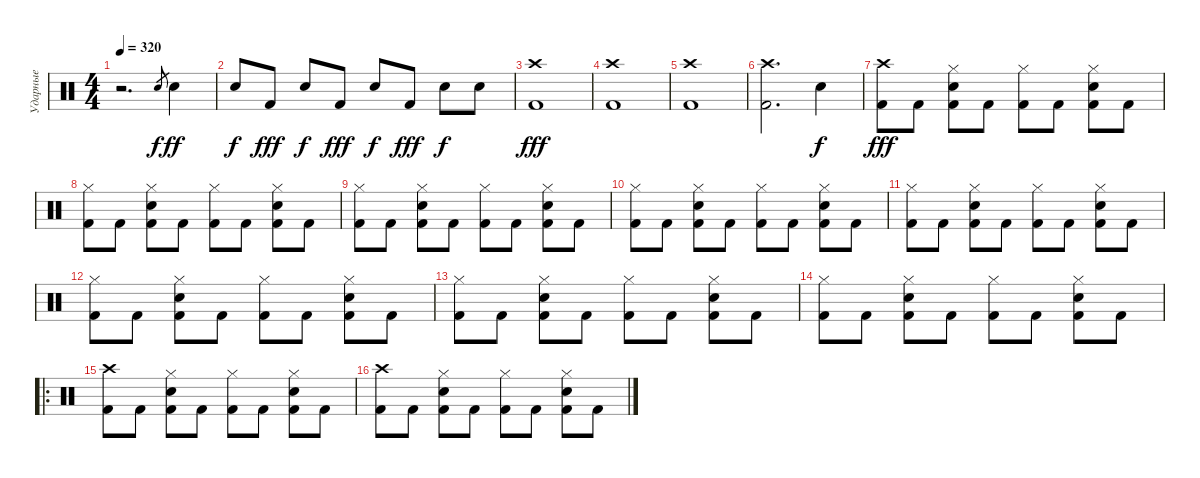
\track ("Ударные" "Ударные") {instrument percussion}
\staff {score}
\articulation defaults
\ts (4 4)
\tempo 320
\clef neutral
\ks c
r.2{d dy fff} "Electric Snare (hit)".8{gr dy f} "Electric Snare (hit)".4{dy ff} |
"Electric Snare (hit)".8{dy f} "Kick (hit) 2".8{dy fff} "Electric Snare (hit)".8{dy f} "Kick (hit) 2".8{dy fff} "Electric Snare (hit)".8{dy f} "Kick (hit) 2".8{dy fff} "Snare (hit) 2".8{dy f} "Snare (hit) 2".8 |
("Kick (hit) 2" "Crash high (hit)").1{dy fff} |
("Kick (hit) 2" "Crash high (hit)").1 |
("Kick (hit) 2" "Crash high (hit)").1 |
("Kick (hit) 2" "Crash high (hit)").2{d} "Snare (hit) 2".4{dy f} |
("Kick (hit) 2" "Crash high (hit)").8{dy fff} "Kick (hit) 2".8 ("Kick (hit) 2" "Snare (hit) 2" "Hi-Hat (closed)").8 "Kick (hit) 2".8 ("Kick (hit) 2" "Hi-Hat (closed)").8 "Kick (hit) 2".8 ("Kick (hit) 2" "Snare (hit) 2" "Hi-Hat (closed)").8 "Kick (hit) 2".8 |
("Kick (hit) 2" "Hi-Hat (closed)").8 "Kick (hit) 2".8 ("Kick (hit) 2" "Snare (hit) 2" "Hi-Hat (closed)").8 "Kick (hit) 2".8 ("Kick (hit) 2" "Hi-Hat (closed)").8 "Kick (hit) 2".8 ("Kick (hit) 2" "Snare (hit) 2" "Hi-Hat (closed)").8 "Kick (hit) 2".8 |
("Kick (hit) 2" "Hi-Hat (closed)").8 "Kick (hit) 2".8 ("Kick (hit) 2" "Snare (hit) 2" "Hi-Hat (closed)").8 "Kick (hit) 2".8 ("Kick (hit) 2" "Hi-Hat (closed)").8 "Kick (hit) 2".8 ("Kick (hit) 2" "Snare (hit) 2" "Hi-Hat (closed)").8 "Kick (hit) 2".8 |
("Kick (hit) 2" "Hi-Hat (closed)").8 "Kick (hit) 2".8 ("Kick (hit) 2" "Snare (hit) 2" "Hi-Hat (closed)").8 "Kick (hit) 2".8 ("Kick (hit) 2" "Hi-Hat (closed)").8 "Kick (hit) 2".8 ("Kick (hit) 2" "Snare (hit) 2" "Hi-Hat (closed)").8 "Kick (hit) 2".8 |
("Kick (hit) 2" "Hi-Hat (closed)").8 "Kick (hit) 2".8 ("Kick (hit) 2" "Snare (hit) 2" "Hi-Hat (closed)").8 "Kick (hit) 2".8 ("Kick (hit) 2" "Hi-Hat (closed)").8 "Kick (hit) 2".8 ("Kick (hit) 2" "Snare (hit) 2" "Hi-Hat (closed)").8 "Kick (hit) 2".8 |
("Kick (hit) 2" "Hi-Hat (closed)").8 "Kick (hit) 2".8 ("Kick (hit) 2" "Snare (hit) 2" "Hi-Hat (closed)").8 "Kick (hit) 2".8 ("Kick (hit) 2" "Hi-Hat (closed)").8 "Kick (hit) 2".8 ("Kick (hit) 2" "Snare (hit) 2" "Hi-Hat (closed)").8 "Kick (hit) 2".8 |
("Kick (hit) 2" "Hi-Hat (closed)").8 "Kick (hit) 2".8 ("Kick (hit) 2" "Snare (hit) 2" "Hi-Hat (closed)").8 "Kick (hit) 2".8 ("Kick (hit) 2" "Hi-Hat (closed)").8 "Kick (hit) 2".8 ("Kick (hit) 2" "Snare (hit) 2" "Hi-Hat (closed)").8 "Kick (hit) 2".8 |
("Kick (hit) 2" "Hi-Hat (closed)").8 "Kick (hit) 2".8 ("Kick (hit) 2" "Snare (hit) 2" "Hi-Hat (closed)").8 "Kick (hit) 2".8 ("Kick (hit) 2" "Hi-Hat (closed)").8 "Kick (hit) 2".8 ("Kick (hit) 2" "Snare (hit) 2" "Hi-Hat (closed)").8 "Kick (hit) 2".8 |
\ro
("Kick (hit) 2" "Crash high (hit)").8 "Kick (hit) 2".8 ("Kick (hit) 2" "Snare (hit) 2" "Hi-Hat (closed)").8 "Kick (hit) 2".8 ("Kick (hit) 2" "Hi-Hat (closed)").8 "Kick (hit) 2".8 ("Kick (hit) 2" "Snare (hit) 2" "Hi-Hat (closed)").8 "Kick (hit) 2".8 |
("Kick (hit) 2" "Crash high (hit)").8 "Kick (hit) 2".8 ("Kick (hit) 2" "Snare (hit) 2" "Hi-Hat (closed)").8 "Kick (hit) 2".8 ("Kick (hit) 2" "Hi-Hat (closed)").8 "Kick (hit) 2".8 ("Kick (hit) 2" "Snare (hit) 2" "Hi-Hat (closed)").8 "Kick (hit) 2".8
